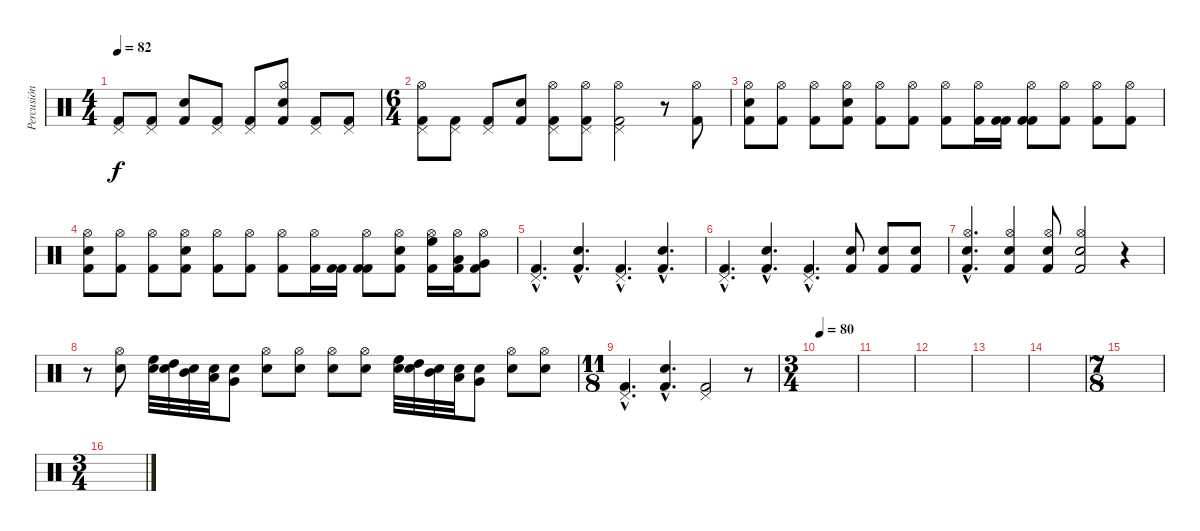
\track ("Percusión" "Percusión") {instrument percussion}
\staff {score}
\articulation defaults
\ts (4 4)
\tempo 82
\clef neutral
\ks c
("Pedal Hi-Hat (hit)" "Kick (hit) 2").8{dy f} ("Pedal Hi-Hat (hit)" "Kick (hit) 2").8 ("Electric Snare (hit)" "Kick (hit) 2").8 ("Pedal Hi-Hat (hit)" "Kick (hit) 2").8 ("Pedal Hi-Hat (hit)" "Kick (hit) 2").8 ("Hi-Hat (open)" "Snare (hit) 2" "Kick (hit) 2").8 ("Pedal Hi-Hat (hit)" "Kick (hit) 2").8 ("Pedal Hi-Hat (hit)" "Kick (hit) 2").8 |
\ts (6 4)
("Pedal Hi-Hat (hit)" "Hi-Hat (open)" "Kick (hit) 2").8 ("Pedal Hi-Hat (hit)" "Kick (hit) 2").8 ("Pedal Hi-Hat (hit)" "Kick (hit) 2").8 ("Snare (hit) 2" "Kick (hit) 2").8 ("Pedal Hi-Hat (hit)" "Hi-Hat (open)" "Kick (hit) 2").8 ("Pedal Hi-Hat (hit)" "Hi-Hat (open)" "Kick (hit) 2").8 ("Pedal Hi-Hat (hit)" "Hi-Hat (open)" "Kick (hit) 2").2 r.8 ("Hi-Hat (open)" "Kick (hit) 2").8 |
("Hi-Hat (open)" "Electric Snare (hit)" "Kick (hit) 2").8 ("Hi-Hat (open)" "Kick (hit) 2").8 ("Hi-Hat (open)" "Kick (hit) 2").8 ("Hi-Hat (open)" "Snare (hit) 2" "Kick (hit) 2").8 ("Hi-Hat (open)" "Kick (hit) 2").8 ("Hi-Hat (open)" "Kick (hit) 2").8 ("Hi-Hat (open)" "Kick (hit) 2").8 ("Hi-Hat (open)" "Kick (hit) 2").16 ("Kick (hit) 2" "Kick (hit) 2").16 ("Hi-Hat (open)" "Kick (hit) 2" "Kick (hit) 2").8 ("Hi-Hat (open)" "Kick (hit) 2").8 ("Hi-Hat (open)" "Kick (hit) 2").8 ("Hi-Hat (open)" "Kick (hit) 2").8 |
("Hi-Hat (open)" "Electric Snare (hit)" "Kick (hit) 2").8 ("Hi-Hat (open)" "Kick (hit) 2").8 ("Hi-Hat (open)" "Kick (hit) 2").8 ("Hi-Hat (open)" "Snare (hit) 2" "Kick (hit) 2").8 ("Hi-Hat (open)" "Kick (hit) 2").8 ("Hi-Hat (open)" "Kick (hit) 2").8 ("Hi-Hat (open)" "Kick (hit) 2").8 ("Hi-Hat (open)" "Kick (hit) 2").16 ("Kick (hit) 2" "Kick (hit) 2").16 ("Hi-Hat (open)" "Kick (hit) 2" "Kick (hit) 2").8 ("Hi-Hat (open)" "Snare (hit) 2" "Kick (hit) 2").8 ("Hi-Hat (open)" "High Floor Tom (hit)" "Kick (hit) 2").16 ("Hi-Hat (open)" "Low Tom (hit)" "Kick (hit) 2").16 ("Hi-Hat (open)" "Very Low Tom (hit)" "Kick (hit) 2").8 |
("Pedal Hi-Hat (hit)"{hac} "Kick (hit) 2"{hac}).4{d} ("Snare (hit) 2"{hac} "Kick (hit) 2"{hac}).4{d} ("Pedal Hi-Hat (hit)"{hac} "Kick (hit) 2"{hac}).4{d} ("Snare (hit) 2"{hac} "Kick (hit) 2"{hac}).4{d} |
("Pedal Hi-Hat (hit)"{hac} "Kick (hit) 2"{hac}).4{d} ("Snare (hit) 2"{hac} "Kick (hit) 2"{hac}).4{d} ("Pedal Hi-Hat (hit)"{hac} "Kick (hit) 2"{hac}).4{d} ("Snare (hit) 2" "Kick (hit) 2").8 ("Snare (hit) 2" "Kick (hit) 2").8 ("Snare (hit) 2" "Kick (hit) 2").8 |
("Snare (hit) 2"{hac} "Kick (hit) 2"{hac} "Hi-Hat (open)"{hac}).4{d} ("Snare (hit) 2" "Kick (hit) 2" "Hi-Hat (open)").4 ("Snare (hit) 2" "Kick (hit) 2" "Hi-Hat (open)").8 ("Snare (hit) 2" "Kick (hit) 2" "Hi-Hat (open)").2 r.4 |
r.8 ("Snare (hit) 2" "Hi-Hat (open)").8 ("Snare (hit) 2" "High Floor Tom (hit)").32 ("Snare (hit) 2" "High Tom (hit)").32 ("Snare (hit) 2" "Mid Tom (hit)").32 ("Snare (hit) 2" "Low Tom (hit)").32 ("Snare (hit) 2" "Very Low Tom (hit)").8 ("Snare (hit) 2" "Hi-Hat (open)").8 ("Snare (hit) 2" "Hi-Hat (open)").8 ("Snare (hit) 2" "Hi-Hat (open)").8 ("Snare (hit) 2" "Hi-Hat (open)").8 ("Snare (hit) 2" "High Floor Tom (hit)").32 ("Snare (hit) 2" "High Tom (hit)").32 ("Snare (hit) 2" "Mid Tom (hit)").32 ("Snare (hit) 2" "Low Tom (hit)").32 ("Snare (hit) 2" "Very Low Tom (hit)").8 ("Snare (hit) 2" "Hi-Hat (open)").8 ("Snare (hit) 2" "Hi-Hat (open)").8 |
\ts (11 8)
("Pedal Hi-Hat (hit)"{hac} "Kick (hit) 2"{hac}).4{d} ("Snare (hit) 2"{hac} "Kick (hit) 2"{hac}).4{d} ("Pedal Hi-Hat (hit)" "Kick (hit) 2").2 r.8 |
\ts (3 4)
\tempo 80
|
|
|
|
|
\ts (7 8)
|
\ts (3 4)
